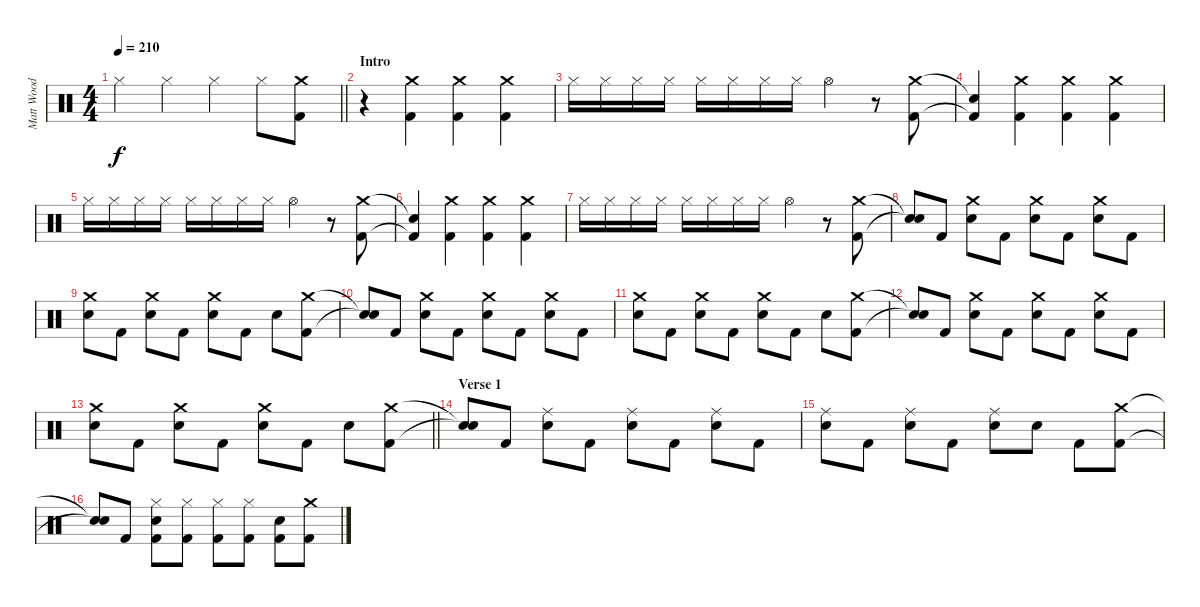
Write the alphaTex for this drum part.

\track ("Matt Wood" "Matt Wood") {instrument percussion}
\staff {score}
\articulation defaults
\ts (4 4)
\tempo 210
\clef neutral
\barLineRight lightlight
\ks c "Hi-Hat (closed)".4{dy f} "Hi-Hat (closed)".4 "Hi-Hat (closed)".4 "Hi-Hat (closed)".8
("Crash medium (hit)" "Kick (hit) 2").8 |
\section ("" "Intro")
r.4 ("Crash medium (hit)" "Kick (hit) 2").4 ("Crash medium (hit)" "Kick (hit) 2").4 ("Crash medium (hit)" "Kick (hit) 2").4 |
"Hi-Hat (closed)".16 "Hi-Hat (closed)".16 "Hi-Hat (closed)".16 "Hi-Hat (closed)".16 "Hi-Hat (closed)".16 "Hi-Hat (closed)".16 "Hi-Hat (closed)".16 "Hi-Hat (closed)".16 "Hi-Hat (open)".4 r.8 ("Crash medium (hit)" "Kick (hit) 2").8 |
("Snare (hit)"{t} "Kick (hit) 2"{t}).4 ("Crash medium (hit)" "Kick (hit) 2").4 ("Crash medium (hit)" "Kick (hit) 2").4 ("Crash medium (hit)" "Kick (hit) 2").4 |
"Hi-Hat (closed)".16 "Hi-Hat (closed)".16 "Hi-Hat (closed)".16 "Hi-Hat (closed)".16 "Hi-Hat (closed)".16 "Hi-Hat (closed)".16 "Hi-Hat (closed)".16 "Hi-Hat (closed)".16 "Hi-Hat (open)".4 r.8 ("Crash medium (hit)" "Kick (hit) 2").8 |
("Snare (hit)"{t} "Kick (hit) 2"{t}).4 ("Crash medium (hit)" "Kick (hit) 2").4 ("Crash medium (hit)" "Kick (hit) 2").4 ("Crash medium (hit)" "Kick (hit) 2").4 |
"Hi-Hat (closed)".16 "Hi-Hat (closed)".16 "Hi-Hat (closed)".16 "Hi-Hat (closed)".16 "Hi-Hat (closed)".16 "Hi-Hat (closed)".16 "Hi-Hat (closed)".16 "Hi-Hat (closed)".16 "Hi-Hat (open)".4 r.8 ("Crash medium (hit)" "Kick (hit) 2").8 |
("Snare (hit)"{t} "Snare (hit)"{t}).8 "Kick (hit) 2".8 ("Crash medium (hit)" "Snare (hit) 2").8 "Kick (hit) 2".8 ("Crash medium (hit)" "Snare (hit) 2").8 "Kick (hit) 2".8 ("Crash medium (hit)" "Snare (hit) 2").8 "Kick (hit) 2".8 |
("Crash medium (hit)" "Snare (hit) 2").8 "Kick (hit) 2".8 ("Crash medium (hit)" "Snare (hit) 2").8 "Kick (hit) 2".8 ("Crash medium (hit)" "Snare (hit) 2").8 "Kick (hit) 2".8 "Snare (hit) 2".8 ("Crash medium (hit)" "Kick (hit) 2").8 |
("Snare (hit)"{t} "Snare (hit)"{t}).8 "Kick (hit) 2".8 ("Crash medium (hit)" "Snare (hit) 2").8 "Kick (hit) 2".8 ("Crash medium (hit)" "Snare (hit) 2").8 "Kick (hit) 2".8 ("Crash medium (hit)" "Snare (hit) 2").8 "Kick (hit) 2".8 |
("Crash medium (hit)" "Snare (hit) 2").8 "Kick (hit) 2".8 ("Crash medium (hit)" "Snare (hit) 2").8 "Kick (hit) 2".8 ("Crash medium (hit)" "Snare (hit) 2").8 "Kick (hit) 2".8 "Snare (hit) 2".8 ("Crash medium (hit)" "Kick (hit) 2").8 |
("Snare (hit)"{t} "Snare (hit)"{t}).8 "Kick (hit) 2".8 ("Crash medium (hit)" "Snare (hit) 2").8 "Kick (hit) 2".8 ("Crash medium (hit)" "Snare (hit) 2").8 "Kick (hit) 2".8 ("Crash medium (hit)" "Snare (hit) 2").8 "Kick (hit) 2".8 |
\barLineRight lightlight
("Crash medium (hit)" "Snare (hit) 2").8 "Kick (hit) 2".8 ("Crash medium (hit)" "Snare (hit) 2").8 "Kick (hit) 2".8 ("Crash medium (hit)" "Snare (hit) 2").8 "Kick (hit) 2".8 "Snare (hit) 2".8 ("Crash medium (hit)" "Kick (hit) 2").8 |
\section ("" "Verse 1")
("Snare (hit)"{t} "Snare (hit)"{t}).8 "Kick (hit) 2".8 ("Ride (middle)" "Snare (hit) 2").8 "Kick (hit) 2".8 ("Ride (middle)" "Snare (hit) 2").8 "Kick (hit) 2".8 ("Ride (middle)" "Snare (hit) 2").8 "Kick (hit) 2".8 |
("Ride (middle)" "Snare (hit) 2").8 "Kick (hit) 2".8 ("Ride (middle)" "Snare (hit) 2").8 "Kick (hit) 2".8 ("Ride (middle)" "Snare (hit) 2").8 "Snare (hit) 2".8 "Kick (hit) 2".8 ("Crash medium (hit)" "Kick (hit) 2").8 |
("Snare (hit)"{t} "Snare (hit)"{t}).8 "Kick (hit) 2".8 ("Hi-Hat (closed)" "Snare (hit) 2" "Kick (hit) 2").8 ("Hi-Hat (closed)" "Kick (hit) 2").8 ("Hi-Hat (closed)" "Kick (hit) 2").8 ("Hi-Hat (closed)" "Kick (hit) 2").8 ("Snare (hit) 2" "Kick (hit) 2").8 ("Crash medium (hit)" "Kick (hit) 2").8
